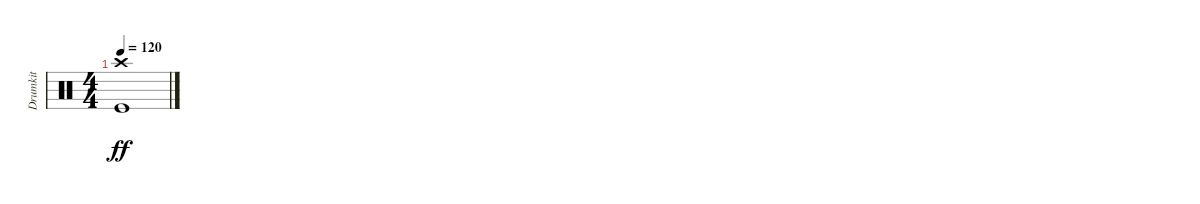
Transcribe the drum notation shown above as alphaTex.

\track ("Drumkit" "Drumkit") {instrument percussion}
\staff {score}
\articulation defaults
\ts (4 4)
\tempo 120
\clef neutral
\ks c
("Kick (hit)" "Crash high (hit)").1{dy ff}
